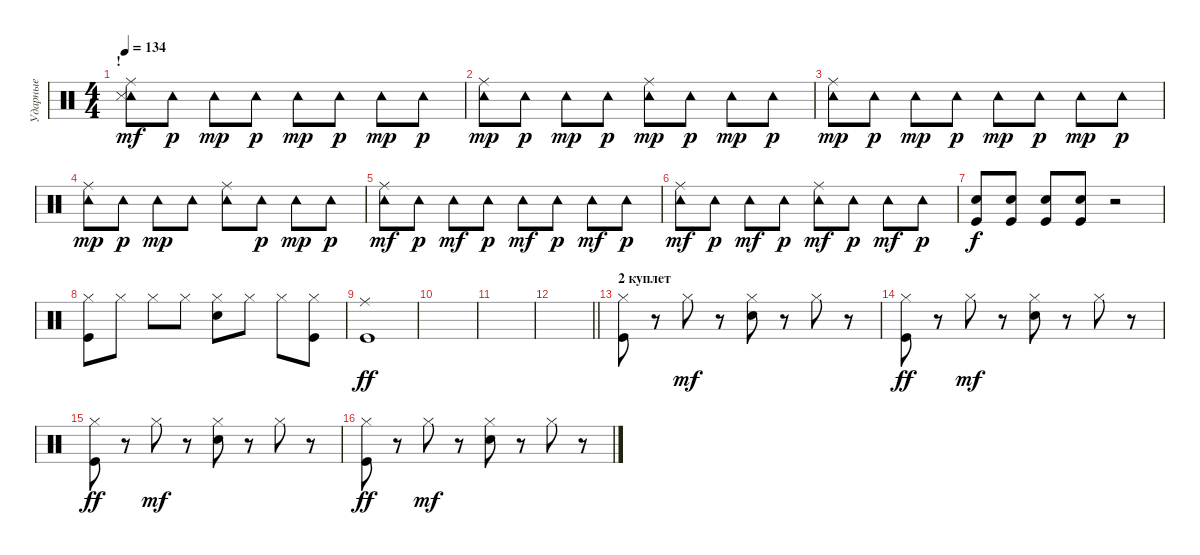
\track ("Ударные" "Ударные") {instrument percussion}
\staff {score}
\articulation defaults
\ts (4 4)
\section ("" "!")
\tempo 134
\clef neutral
\ks c
("Tambourine (hit)" "Ride (middle)" "Snare (side stick) 3").8{dy mf} "Tambourine (hit)".8{dy p} "Tambourine (hit)".8{dy mp} "Tambourine (hit)".8{dy p} "Tambourine (hit)".8{dy mp} "Tambourine (hit)".8{dy p} "Tambourine (hit)".8{dy mp} "Tambourine (hit)".8{dy p} |
("Tambourine (hit)" "Ride (middle)").8{dy mp} "Tambourine (hit)".8{dy p} "Tambourine (hit)".8{dy mp} "Tambourine (hit)".8{dy p} ("Tambourine (hit)" "Ride (middle)").8{dy mp} "Tambourine (hit)".8{dy p} "Tambourine (hit)".8{dy mp} "Tambourine (hit)".8{dy p} |
("Tambourine (hit)" "Ride (middle)").8{dy mp} "Tambourine (hit)".8{dy p} "Tambourine (hit)".8{dy mp} "Tambourine (hit)".8{dy p} "Tambourine (hit)".8{dy mp} "Tambourine (hit)".8{dy p} "Tambourine (hit)".8{dy mp} "Tambourine (hit)".8{dy p} |
("Tambourine (hit)" "Ride (middle)").8{dy mp} "Tambourine (hit)".8{dy p} "Tambourine (hit)".8{dy mp} "Tambourine (hit)".8 ("Tambourine (hit)" "Ride (middle)").8 "Tambourine (hit)".8{dy p} "Tambourine (hit)".8{dy mp} "Tambourine (hit)".8{dy p} |
("Tambourine (hit)" "Ride (middle)").8{dy mf} "Tambourine (hit)".8{dy p} "Tambourine (hit)".8{dy mf} "Tambourine (hit)".8{dy p} "Tambourine (hit)".8{dy mf} "Tambourine (hit)".8{dy p} "Tambourine (hit)".8{dy mf} "Tambourine (hit)".8{dy p} |
("Tambourine (hit)" "Ride (middle)").8{dy mf} "Tambourine (hit)".8{dy p} "Tambourine (hit)".8{dy mf} "Tambourine (hit)".8{dy p} ("Tambourine (hit)" "Ride (middle)").8{dy mf} "Tambourine (hit)".8{dy p} "Tambourine (hit)".8{dy mf} "Tambourine (hit)".8{dy p} |
("Kick (hit)" "Snare (hit) 2").8{dy f} ("Kick (hit)" "Snare (hit) 2").8 ("Kick (hit)" "Snare (hit) 2").8 ("Kick (hit)" "Snare (hit) 2").8 r.2 |
("Hi-Hat (closed)" "Kick (hit)").8 "Hi-Hat (closed)".8 "Hi-Hat (closed)".8 "Hi-Hat (closed)".8 ("Hi-Hat (closed)" "Snare (hit) 2").8 "Hi-Hat (closed)".8 "Hi-Hat (closed)".8 ("Hi-Hat (closed)" "Kick (hit)").8 |
("Kick (hit)" "Ride (middle)").1{dy ff} |
|
|
\barLineRight lightlight
|
\section ("" "2 куплет")
("Kick (hit)" "Hi-Hat (closed)").8 r.8 "Hi-Hat (closed)".8{dy mf} r.8 ("Hi-Hat (closed)" "Snare (hit) 2").8 r.8 "Hi-Hat (closed)".8 r.8 |
("Kick (hit)" "Hi-Hat (closed)").8{dy ff} r.8 "Hi-Hat (closed)".8{dy mf} r.8 ("Hi-Hat (closed)" "Snare (hit) 2").8 r.8 "Hi-Hat (closed)".8 r.8 |
("Kick (hit)" "Hi-Hat (closed)").8{dy ff} r.8 "Hi-Hat (closed)".8{dy mf} r.8 ("Hi-Hat (closed)" "Snare (hit) 2").8 r.8 "Hi-Hat (closed)".8 r.8 |
("Kick (hit)" "Hi-Hat (closed)").8{dy ff} r.8 "Hi-Hat (closed)".8{dy mf} r.8 ("Hi-Hat (closed)" "Snare (hit) 2").8 r.8 "Hi-Hat (closed)".8 r.8
